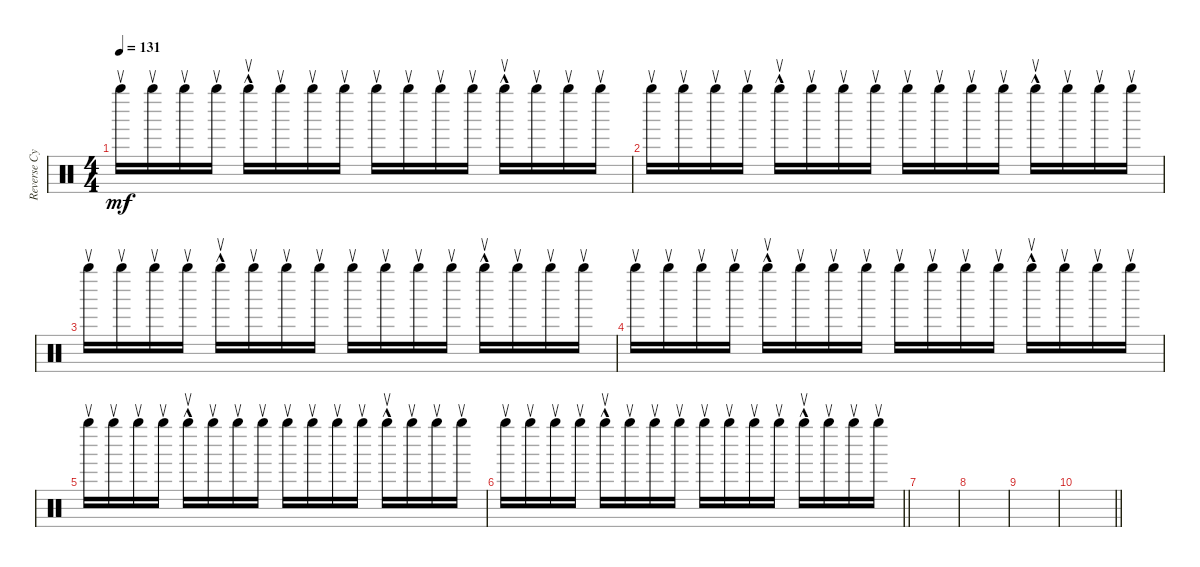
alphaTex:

\track ("Reverse Cymbal" "Reverse Cy") {instrument percussion}
\staff {score}
\articulation defaults
\ts (4 4)
\tempo 131
\clef neutral
\ks c "Right Maraca (return)".16{dy mf} "Right Maraca (return)".16 "Right Maraca (return)".16 "Right Maraca (return)".16 "Right Maraca (return)"{hac}.16 "Right Maraca (return)".16 "Right Maraca (return)".16 "Right Maraca (return)".16 "Right Maraca (return)".16 "Right Maraca (return)".16 "Right Maraca (return)".16 "Right Maraca (return)".16 "Right Maraca (return)"{hac}.16 "Right Maraca (return)".16 "Right Maraca (return)".16 "Right Maraca (return)".16
|
"Right Maraca (return)".16 "Right Maraca (return)".16 "Right Maraca (return)".16 "Right Maraca (return)".16 "Right Maraca (return)"{hac}.16 "Right Maraca (return)".16 "Right Maraca (return)".16 "Right Maraca (return)".16 "Right Maraca (return)".16 "Right Maraca (return)".16 "Right Maraca (return)".16 "Right Maraca (return)".16 "Right Maraca (return)"{hac}.16 "Right Maraca (return)".16 "Right Maraca (return)".16 "Right Maraca (return)".16 |
"Right Maraca (return)".16 "Right Maraca (return)".16 "Right Maraca (return)".16 "Right Maraca (return)".16 "Right Maraca (return)"{hac}.16 "Right Maraca (return)".16 "Right Maraca (return)".16 "Right Maraca (return)".16 "Right Maraca (return)".16 "Right Maraca (return)".16 "Right Maraca (return)".16 "Right Maraca (return)".16 "Right Maraca (return)"{hac}.16 "Right Maraca (return)".16 "Right Maraca (return)".16 "Right Maraca (return)".16 |
"Right Maraca (return)".16 "Right Maraca (return)".16 "Right Maraca (return)".16 "Right Maraca (return)".16 "Right Maraca (return)"{hac}.16 "Right Maraca (return)".16 "Right Maraca (return)".16 "Right Maraca (return)".16 "Right Maraca (return)".16 "Right Maraca (return)".16 "Right Maraca (return)".16 "Right Maraca (return)".16 "Right Maraca (return)"{hac}.16 "Right Maraca (return)".16 "Right Maraca (return)".16 "Right Maraca (return)".16 |
"Right Maraca (return)".16 "Right Maraca (return)".16 "Right Maraca (return)".16 "Right Maraca (return)".16 "Right Maraca (return)"{hac}.16 "Right Maraca (return)".16 "Right Maraca (return)".16 "Right Maraca (return)".16 "Right Maraca (return)".16 "Right Maraca (return)".16 "Right Maraca (return)".16 "Right Maraca (return)".16 "Right Maraca (return)"{hac}.16 "Right Maraca (return)".16 "Right Maraca (return)".16 "Right Maraca (return)".16 |
\barLineRight lightlight "Right Maraca (return)".16 "Right Maraca (return)".16 "Right Maraca (return)".16 "Right Maraca (return)".16 "Right Maraca (return)"{hac}.16 "Right Maraca (return)".16 "Right Maraca (return)".16 "Right Maraca (return)".16 "Right Maraca (return)".16 "Right Maraca (return)".16 "Right Maraca (return)".16 "Right Maraca (return)".16 "Right Maraca (return)"{hac}.16 "Right Maraca (return)".16 "Right Maraca (return)".16 "Right Maraca (return)".16
|
|
|
|
\barLineRight lightlight
